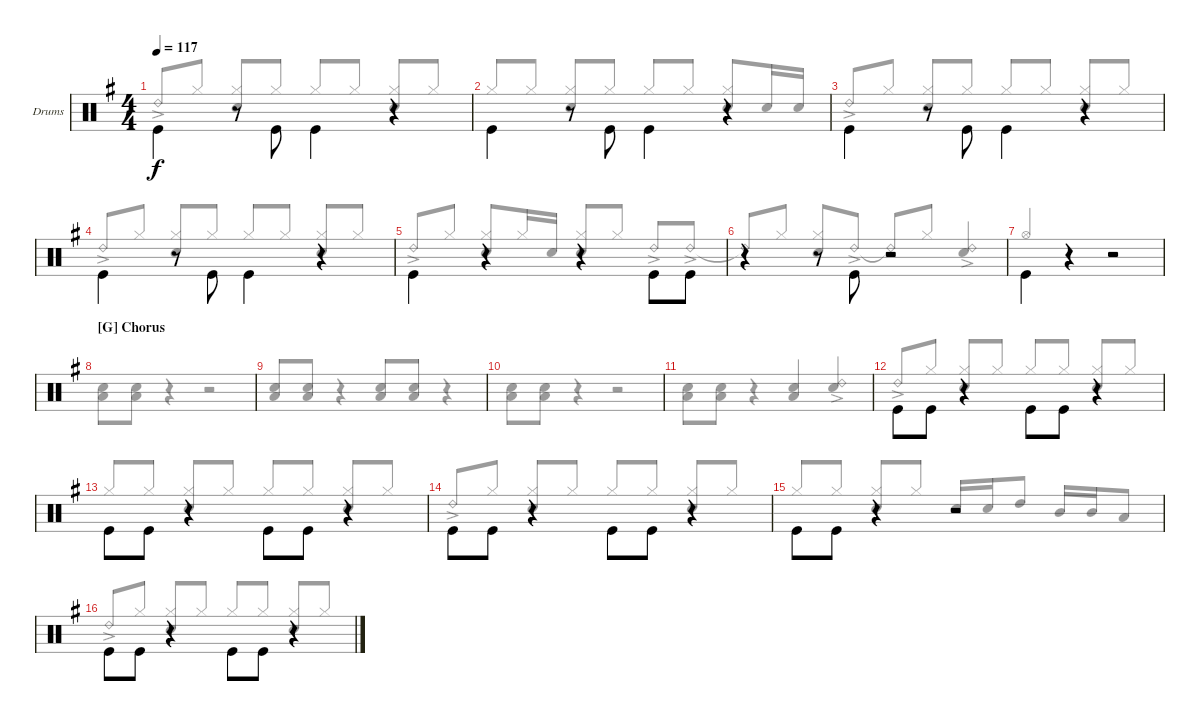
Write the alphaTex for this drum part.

\defaultSystemsLayout 4
\bracketExtendMode groupsimilarinstruments
\firstSystemTrackNameOrientation horizontal
\otherSystemsTrackNameOrientation horizontal
\track ("Drums" "Drums") {instrument percussion}
\staff {score}
\articulation defaults
\voice
\ts (4 4)
\tempo 117
\clef neutral
\scale
1.02648
\ks g "Kick (hit)".4{dy f beam invert}
r.8 "Kick (hit)".8{beam invert} "Kick (hit)".4{beam invert} r.4 |
\scale
0.973518 "Kick (hit)".4{beam invert} r.8 "Kick (hit)".8{beam invert} "Kick (hit)".4{beam invert} r.4 |
\scale
1.02648 "Kick (hit)".4{beam invert} r.8 "Kick (hit)".8{beam invert} "Kick (hit)".4{beam invert} r.4 |
\scale
0.973518 "Kick (hit)".4{beam invert} r.8 "Kick (hit)".8{beam invert} "Kick (hit)".4{beam invert} r.4 |
\scale
1.02648 "Kick (hit)".4{beam invert} r.4 r.4 "Kick (hit)".8{beam invert} "Kick (hit)".8 |
\scale
0.973518 r.4 r.8 "Kick (hit)".8{beam invert} r.2 |
\scale
1.02648 "Kick (hit)".4{beam invert} r.4 r.2 |
\section ("G" "Chorus")
\scale
0.973518 |
\scale
1.02648 |
\scale
0.973518 |
\scale
1.07314 |
\scale
0.92686 "Kick (hit)".8{beam invert} "Kick (hit)".8 r.4 "Kick (hit)".8{beam invert} "Kick (hit)".8 r.4 |
\scale
1.04288 "Kick (hit)".8{beam invert} "Kick (hit)".8 r.4 "Kick (hit)".8{beam invert} "Kick (hit)".8 r.4 |
\scale
0.957125 "Kick (hit)".8{beam invert} "Kick (hit)".8 r.4 "Kick (hit)".8{beam invert} "Kick (hit)".8 r.4 |
\scale
1.04288 "Kick (hit)".8{beam invert} "Kick (hit)".8 r.4 r.2 |
\scale
0.957125 "Kick (hit)".8{beam invert} "Kick (hit)".8 r.4 "Kick (hit)".8{beam invert} "Kick (hit)".8 r.4
\voice
\clef neutral
\ottava regular
\simile none
\scale
1.02648
\ks g "Ride (bell) 2"{ac}.8{dy f beam invert} "Hi-Hat (closed)".8
("Hi-Hat (closed)" "Snare (hit) 2").8{beam invert} "Hi-Hat (closed)".8 "Hi-Hat (closed)".8{beam invert} "Hi-Hat (closed)".8 ("Hi-Hat (closed)" "Snare (hit) 2").8{beam invert} "Hi-Hat (closed)".8 |
\scale
0.973518 "Hi-Hat (closed)".8{beam invert} "Hi-Hat (closed)".8 ("Hi-Hat (closed)" "Snare (hit) 2").8{beam invert} "Hi-Hat (closed)".8 "Hi-Hat (closed)".8{beam invert} "Hi-Hat (closed)".8 ("Hi-Hat (closed)" "Snare (hit) 2").8{beam invert} "Snare (hit) 2".16 "Snare (hit) 2".16 |
\scale
1.02648 "Ride (bell) 2"{ac}.8{beam invert} "Hi-Hat (closed)".8 ("Hi-Hat (closed)" "Snare (hit) 2").8{beam invert} "Hi-Hat (closed)".8 "Hi-Hat (closed)".8{beam invert} "Hi-Hat (closed)".8 ("Hi-Hat (closed)" "Snare (hit) 2").8{beam invert} "Hi-Hat (closed)".8 |
\scale
0.973518 "Ride (bell) 2"{ac}.8{beam invert} "Hi-Hat (closed)".8 ("Hi-Hat (closed)" "Snare (hit) 2").8{beam invert} "Hi-Hat (closed)".8 "Hi-Hat (closed)".8{beam invert} "Hi-Hat (closed)".8 ("Hi-Hat (closed)" "Snare (hit) 2").8{beam invert} "Hi-Hat (closed)".8 |
\scale
1.02648 "Ride (bell) 2"{ac}.8{beam invert} "Hi-Hat (closed)".8 ("Hi-Hat (closed)" "Snare (hit) 2").8{beam invert} "Hi-Hat (closed)".16 "Snare (hit) 2".16 ("Hi-Hat (closed)" "Snare (hit) 2").8{beam invert} "Hi-Hat (closed)".8 "Ride (bell) 2"{ac}.8{beam invert} "Ride (bell) 2"{ac}.8 |
\scale
0.973518 "Ride (bell) 2"{t}.8{beam invert} "Hi-Hat (closed)".8 ("Hi-Hat (closed)" "Snare (hit) 2").8{beam invert} "Ride (bell) 2"{ac}.8 "Ride (bell) 2"{t}.8{beam invert} "Hi-Hat (closed)".8 ("Ride (bell) 2"{ac} "Snare (hit) 2").4{beam invert} |
\scale
1.02648 "Hi-Hat (open)".2{beam invert} r.2 |
\scale
0.973518 ("Low Tom (hit)" "Snare (hit) 2").8 ("Low Tom (hit)" "Snare (hit) 2").8 r.4 r.2 |
\scale
1.02648 ("Low Tom (hit)" "Snare (hit) 2").8 ("Low Tom (hit)" "Snare (hit) 2").8 r.4{beam invert} ("Low Tom (hit)" "Snare (hit) 2").8 ("Low Tom (hit)" "Snare (hit) 2").8 r.4{beam invert} |
\scale
0.973518 ("Low Tom (hit)" "Snare (hit) 2").8 ("Low Tom (hit)" "Snare (hit) 2").8 r.4 r.2 |
\scale
1.07314 ("Low Tom (hit)" "Snare (hit) 2").8 ("Low Tom (hit)" "Snare (hit) 2").8 r.4 ("Low Tom (hit)" "Snare (hit) 2").4 ("Snare (hit) 2" "Ride (bell) 2"{ac}).4{beam invert} |
\scale
0.92686 "Ride (bell) 2"{ac}.8{beam invert} "Hi-Hat (closed)".8 ("Hi-Hat (closed)" "Snare (hit) 2").8{beam invert} "Hi-Hat (closed)".8 "Hi-Hat (closed)".8{beam invert} "Hi-Hat (closed)".8 ("Hi-Hat (closed)" "Snare (hit) 2").8{beam invert} "Hi-Hat (closed)".8 |
\scale
1.04288 "Hi-Hat (closed)".8{beam invert} "Hi-Hat (closed)".8 ("Hi-Hat (closed)" "Snare (hit) 2").8{beam invert} "Hi-Hat (closed)".8 "Hi-Hat (closed)".8{beam invert} "Hi-Hat (closed)".8 ("Hi-Hat (closed)" "Snare (hit) 2").8{beam invert} "Hi-Hat (closed)".8 |
\scale
0.957125 "Ride (bell) 2"{ac}.8{beam invert} "Hi-Hat (closed)".8 ("Hi-Hat (closed)" "Snare (hit) 2").8{beam invert} "Hi-Hat (closed)".8 "Hi-Hat (closed)".8{beam invert} "Hi-Hat (closed)".8 ("Hi-Hat (closed)" "Snare (hit) 2").8{beam invert} "Hi-Hat (closed)".8 |
\scale
1.04288 "Hi-Hat (closed)".8{beam invert} "Hi-Hat (closed)".8 ("Hi-Hat (closed)" "Snare (hit) 2").8{beam invert} "Hi-Hat (closed)".8 "Snare (hit) 2".16{beam invert} "Snare (hit) 2".16 "High Tom (hit)".8 "Mid Tom (hit)".16{beam invert} "Mid Tom (hit)".16 "Low Tom (hit)".8 |
\scale
0.957125 "Ride (bell) 2"{ac}.8{beam invert} "Hi-Hat (closed)".8 ("Hi-Hat (closed)" "Snare (hit) 2").8{beam invert} "Hi-Hat (closed)".8 "Hi-Hat (closed)".8{beam invert} "Hi-Hat (closed)".8 ("Hi-Hat (closed)" "Snare (hit) 2").8{beam invert} "Hi-Hat (closed)".8
